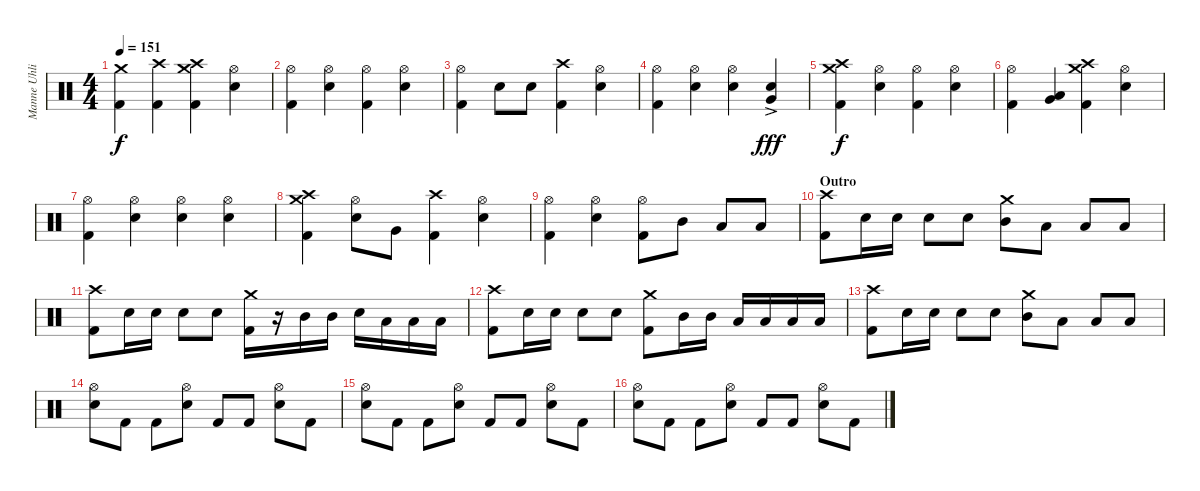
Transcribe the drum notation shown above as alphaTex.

\track ("Manne Uhlig" "Manne Uhli") {instrument percussion}
\staff {score}
\articulation defaults
\ts (4 4)
\tempo 151
\clef neutral
\ks c
("Crash medium (hit)" "Kick (hit) 2").4{dy f} ("Crash high (hit)" "Kick (hit) 2").4 ("Crash high (hit)" "Crash medium (hit)" "Kick (hit) 2").4 ("Hi-Hat (open)" "Snare (hit) 2").4 |
("Hi-Hat (open)" "Kick (hit) 2").4 ("Hi-Hat (open)" "Snare (hit) 2").4 ("Hi-Hat (open)" "Kick (hit) 2").4 ("Hi-Hat (open)" "Snare (hit) 2").4 |
("Hi-Hat (open)" "Kick (hit) 2").4 "Snare (hit) 2".8 "Snare (hit) 2".8 ("Crash high (hit)" "Kick (hit) 2").4 ("Hi-Hat (open)" "Snare (hit) 2").4 |
("Hi-Hat (open)" "Kick (hit) 2").4 ("Hi-Hat (open)" "Snare (hit) 2").4 ("Hi-Hat (open)" "Snare (hit) 2").4 ("Snare (hit) 2" "Very Low Tom (hit)"{ac}).4{dy fff} |
("Crash high (hit)" "Crash medium (hit)" "Kick (hit) 2").4{dy f} ("Hi-Hat (open)" "Snare (hit) 2").4 ("Hi-Hat (open)" "Kick (hit) 2").4 ("Hi-Hat (open)" "Snare (hit) 2").4 |
("Hi-Hat (open)" "Kick (hit) 2").4 ("Very Low Tom (hit)" "Low Floor Tom (hit)").4 ("Crash high (hit)" "Crash medium (hit)" "Kick (hit) 2").4 ("Hi-Hat (open)" "Snare (hit) 2").4 |
("Hi-Hat (open)" "Kick (hit) 2").4 ("Hi-Hat (open)" "Snare (hit) 2").4 ("Hi-Hat (open)" "Snare (hit) 2").4 ("Hi-Hat (open)" "Snare (hit) 2").4 |
("Crash high (hit)" "Crash medium (hit)" "Kick (hit) 2").4 ("Hi-Hat (open)" "Snare (hit) 2").8 "Very Low Tom (hit)".8 ("Crash high (hit)" "Kick (hit) 2").4 ("Hi-Hat (open)" "Snare (hit) 2").4 |
("Hi-Hat (open)" "Kick (hit) 2").4 ("Hi-Hat (open)" "Snare (hit) 2").4 ("Hi-Hat (open)" "Kick (hit) 2").8 "Mid Tom (hit)".8 "Low Tom (hit)".8 "Low Tom (hit)".8 |
\section ("" "Outro")
("Crash high (hit)" "Kick (hit) 2").8 "Snare (hit) 2".16 "Snare (hit) 2".16 "Snare (hit) 2".8 "Snare (hit) 2".8 ("Crash medium (hit)" "Mid Tom (hit)").8 "Low Tom (hit)".8 "Low Tom (hit)".8 "Low Tom (hit)".8 |
("Crash high (hit)" "Kick (hit) 2").8 "Snare (hit) 2".16 "Snare (hit) 2".16 "Snare (hit) 2".8 "Snare (hit) 2".8 ("Crash medium (hit)" "Kick (hit) 2").16 r.16 "Mid Tom (hit)".16 "Mid Tom (hit)".16 "Snare (hit) 2".16 "Low Tom (hit)".16 "Low Tom (hit)".16 "Low Tom (hit)".16 |
("Crash high (hit)" "Kick (hit) 2").8 "Snare (hit) 2".16 "Snare (hit) 2".16 "Snare (hit) 2".8 "Snare (hit) 2".8 ("Crash medium (hit)" "Kick (hit) 2").8 "Mid Tom (hit)".16 "Mid Tom (hit)".16 "Low Tom (hit)".16 "Low Tom (hit)".16 "Low Tom (hit)".16 "Low Tom (hit)".16 |
("Crash high (hit)" "Kick (hit) 2").8 "Snare (hit) 2".16 "Snare (hit) 2".16 "Snare (hit) 2".8 "Snare (hit) 2".8 ("Crash medium (hit)" "Mid Tom (hit)").8 "Low Tom (hit)".8 "Low Tom (hit)".8 "Low Tom (hit)".8 |
("Hi-Hat (open)" "Snare (hit) 2").8 "Kick (hit) 2".8 "Kick (hit) 2".8 ("Hi-Hat (open)" "Snare (hit) 2").8 "Kick (hit) 2".8 "Kick (hit) 2".8 ("Hi-Hat (open)" "Snare (hit) 2").8 "Kick (hit) 2".8 |
("Hi-Hat (open)" "Snare (hit) 2").8 "Kick (hit) 2".8 "Kick (hit) 2".8 ("Hi-Hat (open)" "Snare (hit) 2").8 "Kick (hit) 2".8 "Kick (hit) 2".8 ("Hi-Hat (open)" "Snare (hit) 2").8 "Kick (hit) 2".8 |
("Hi-Hat (open)" "Snare (hit) 2").8 "Kick (hit) 2".8 "Kick (hit) 2".8 ("Hi-Hat (open)" "Snare (hit) 2").8 "Kick (hit) 2".8 "Kick (hit) 2".8 ("Hi-Hat (open)" "Snare (hit) 2").8 "Kick (hit) 2".8
